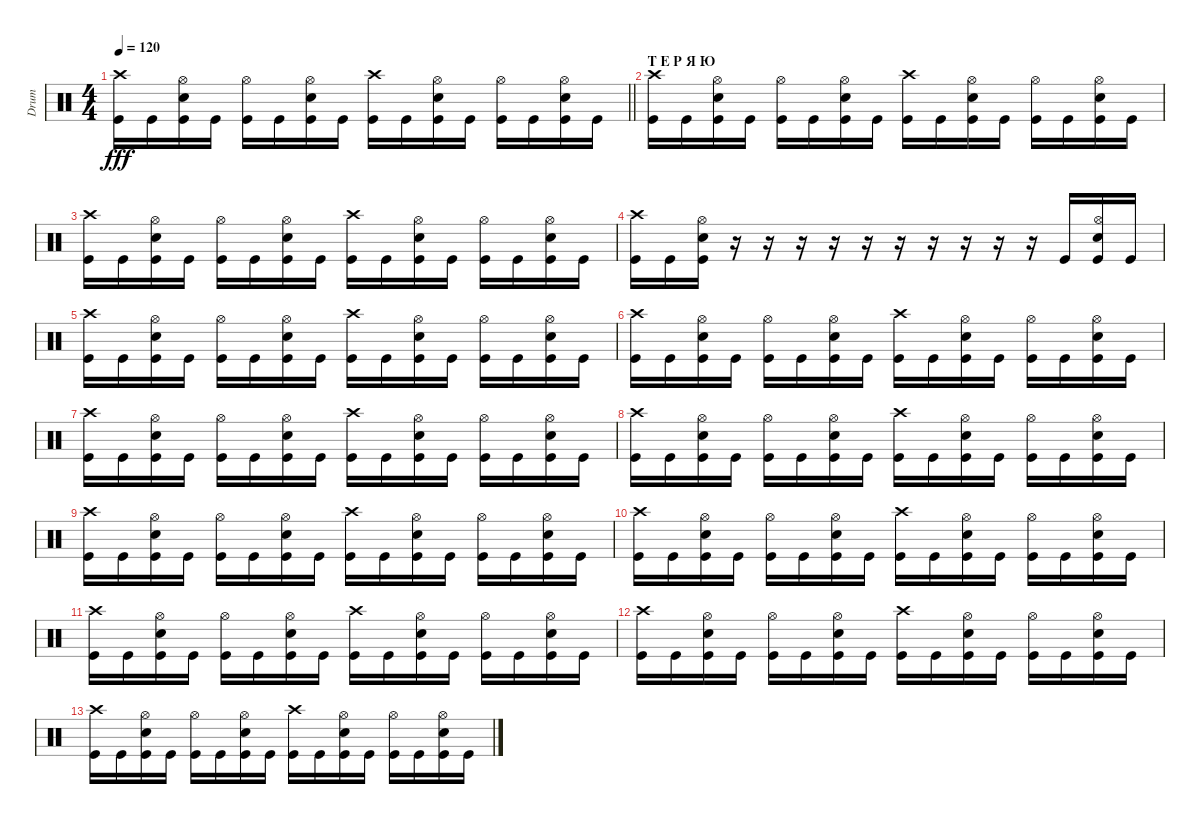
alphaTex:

\track ("Drum" "Drum") {instrument percussion}
\staff {score}
\articulation defaults
\ts (4 4)
\tempo 120
\clef neutral
\barLineRight lightlight
\ks c
("Crash high (hit)" "Kick (hit)").16{dy fff} "Kick (hit)".16 ("Hi-Hat (open)" "Electric Snare (hit)" "Kick (hit)").16 "Kick (hit)".16 ("Hi-Hat (open)" "Kick (hit)").16 "Kick (hit)".16 ("Hi-Hat (open)" "Electric Snare (hit)" "Kick (hit)").16 "Kick (hit)".16 ("Crash high (hit)" "Kick (hit)").16 "Kick (hit)".16 ("Hi-Hat (open)" "Electric Snare (hit)" "Kick (hit)").16 "Kick (hit)".16 ("Hi-Hat (open)" "Kick (hit)").16 "Kick (hit)".16 ("Hi-Hat (open)" "Electric Snare (hit)" "Kick (hit)").16 "Kick (hit)".16 |
\section ("" "Т Е Р Я Ю")
("Crash high (hit)" "Kick (hit)").16 "Kick (hit)".16 ("Hi-Hat (open)" "Electric Snare (hit)" "Kick (hit)").16 "Kick (hit)".16 ("Hi-Hat (open)" "Kick (hit)").16 "Kick (hit)".16 ("Hi-Hat (open)" "Electric Snare (hit)" "Kick (hit)").16 "Kick (hit)".16 ("Crash high (hit)" "Kick (hit)").16 "Kick (hit)".16 ("Hi-Hat (open)" "Electric Snare (hit)" "Kick (hit)").16 "Kick (hit)".16 ("Hi-Hat (open)" "Kick (hit)").16 "Kick (hit)".16 ("Hi-Hat (open)" "Electric Snare (hit)" "Kick (hit)").16 "Kick (hit)".16 |
("Crash high (hit)" "Kick (hit)").16 "Kick (hit)".16 ("Hi-Hat (open)" "Electric Snare (hit)" "Kick (hit)").16 "Kick (hit)".16 ("Hi-Hat (open)" "Kick (hit)").16 "Kick (hit)".16 ("Hi-Hat (open)" "Electric Snare (hit)" "Kick (hit)").16 "Kick (hit)".16 ("Crash high (hit)" "Kick (hit)").16 "Kick (hit)".16 ("Hi-Hat (open)" "Electric Snare (hit)" "Kick (hit)").16 "Kick (hit)".16 ("Hi-Hat (open)" "Kick (hit)").16 "Kick (hit)".16 ("Hi-Hat (open)" "Electric Snare (hit)" "Kick (hit)").16 "Kick (hit)".16 |
("Crash high (hit)" "Kick (hit)").16 "Kick (hit)".16 ("Hi-Hat (open)" "Electric Snare (hit)" "Kick (hit)").16 r.16 r.16 r.16 r.16 r.16 r.16 r.16 r.16 r.16 r.16 "Kick (hit)".16 ("Hi-Hat (open)" "Electric Snare (hit)" "Kick (hit)").16 "Kick (hit)".16 |
("Crash high (hit)" "Kick (hit)").16 "Kick (hit)".16 ("Hi-Hat (open)" "Electric Snare (hit)" "Kick (hit)").16 "Kick (hit)".16 ("Hi-Hat (open)" "Kick (hit)").16 "Kick (hit)".16 ("Hi-Hat (open)" "Electric Snare (hit)" "Kick (hit)").16 "Kick (hit)".16 ("Crash high (hit)" "Kick (hit)").16 "Kick (hit)".16 ("Hi-Hat (open)" "Electric Snare (hit)" "Kick (hit)").16 "Kick (hit)".16 ("Hi-Hat (open)" "Kick (hit)").16 "Kick (hit)".16 ("Hi-Hat (open)" "Electric Snare (hit)" "Kick (hit)").16 "Kick (hit)".16 |
("Crash high (hit)" "Kick (hit)").16 "Kick (hit)".16 ("Hi-Hat (open)" "Electric Snare (hit)" "Kick (hit)").16 "Kick (hit)".16 ("Hi-Hat (open)" "Kick (hit)").16 "Kick (hit)".16 ("Hi-Hat (open)" "Electric Snare (hit)" "Kick (hit)").16 "Kick (hit)".16 ("Crash high (hit)" "Kick (hit)").16 "Kick (hit)".16 ("Hi-Hat (open)" "Electric Snare (hit)" "Kick (hit)").16 "Kick (hit)".16 ("Hi-Hat (open)" "Kick (hit)").16 "Kick (hit)".16 ("Hi-Hat (open)" "Electric Snare (hit)" "Kick (hit)").16 "Kick (hit)".16 |
("Crash high (hit)" "Kick (hit)").16 "Kick (hit)".16 ("Hi-Hat (open)" "Electric Snare (hit)" "Kick (hit)").16 "Kick (hit)".16 ("Hi-Hat (open)" "Kick (hit)").16 "Kick (hit)".16 ("Hi-Hat (open)" "Electric Snare (hit)" "Kick (hit)").16 "Kick (hit)".16 ("Crash high (hit)" "Kick (hit)").16 "Kick (hit)".16 ("Hi-Hat (open)" "Electric Snare (hit)" "Kick (hit)").16 "Kick (hit)".16 ("Hi-Hat (open)" "Kick (hit)").16 "Kick (hit)".16 ("Hi-Hat (open)" "Electric Snare (hit)" "Kick (hit)").16 "Kick (hit)".16 |
("Crash high (hit)" "Kick (hit)").16 "Kick (hit)".16 ("Hi-Hat (open)" "Electric Snare (hit)" "Kick (hit)").16 "Kick (hit)".16 ("Hi-Hat (open)" "Kick (hit)").16 "Kick (hit)".16 ("Hi-Hat (open)" "Electric Snare (hit)" "Kick (hit)").16 "Kick (hit)".16 ("Crash high (hit)" "Kick (hit)").16 "Kick (hit)".16 ("Hi-Hat (open)" "Electric Snare (hit)" "Kick (hit)").16 "Kick (hit)".16 ("Hi-Hat (open)" "Kick (hit)").16 "Kick (hit)".16 ("Hi-Hat (open)" "Electric Snare (hit)" "Kick (hit)").16 "Kick (hit)".16 |
("Crash high (hit)" "Kick (hit)").16 "Kick (hit)".16 ("Hi-Hat (open)" "Electric Snare (hit)" "Kick (hit)").16 "Kick (hit)".16 ("Hi-Hat (open)" "Kick (hit)").16 "Kick (hit)".16 ("Hi-Hat (open)" "Electric Snare (hit)" "Kick (hit)").16 "Kick (hit)".16 ("Crash high (hit)" "Kick (hit)").16 "Kick (hit)".16 ("Hi-Hat (open)" "Electric Snare (hit)" "Kick (hit)").16 "Kick (hit)".16 ("Hi-Hat (open)" "Kick (hit)").16 "Kick (hit)".16 ("Hi-Hat (open)" "Electric Snare (hit)" "Kick (hit)").16 "Kick (hit)".16 |
("Crash high (hit)" "Kick (hit)").16 "Kick (hit)".16 ("Hi-Hat (open)" "Electric Snare (hit)" "Kick (hit)").16 "Kick (hit)".16 ("Hi-Hat (open)" "Kick (hit)").16 "Kick (hit)".16 ("Hi-Hat (open)" "Electric Snare (hit)" "Kick (hit)").16 "Kick (hit)".16 ("Crash high (hit)" "Kick (hit)").16 "Kick (hit)".16 ("Hi-Hat (open)" "Electric Snare (hit)" "Kick (hit)").16 "Kick (hit)".16 ("Hi-Hat (open)" "Kick (hit)").16 "Kick (hit)".16 ("Hi-Hat (open)" "Electric Snare (hit)" "Kick (hit)").16 "Kick (hit)".16 |
("Crash high (hit)" "Kick (hit)").16 "Kick (hit)".16 ("Hi-Hat (open)" "Electric Snare (hit)" "Kick (hit)").16 "Kick (hit)".16 ("Hi-Hat (open)" "Kick (hit)").16 "Kick (hit)".16 ("Hi-Hat (open)" "Electric Snare (hit)" "Kick (hit)").16 "Kick (hit)".16 ("Crash high (hit)" "Kick (hit)").16 "Kick (hit)".16 ("Hi-Hat (open)" "Electric Snare (hit)" "Kick (hit)").16 "Kick (hit)".16 ("Hi-Hat (open)" "Kick (hit)").16 "Kick (hit)".16 ("Hi-Hat (open)" "Electric Snare (hit)" "Kick (hit)").16 "Kick (hit)".16 |
("Crash high (hit)" "Kick (hit)").16 "Kick (hit)".16 ("Hi-Hat (open)" "Electric Snare (hit)" "Kick (hit)").16 "Kick (hit)".16 ("Hi-Hat (open)" "Kick (hit)").16 "Kick (hit)".16 ("Hi-Hat (open)" "Electric Snare (hit)" "Kick (hit)").16 "Kick (hit)".16 ("Crash high (hit)" "Kick (hit)").16 "Kick (hit)".16 ("Hi-Hat (open)" "Electric Snare (hit)" "Kick (hit)").16 "Kick (hit)".16 ("Hi-Hat (open)" "Kick (hit)").16 "Kick (hit)".16 ("Hi-Hat (open)" "Electric Snare (hit)" "Kick (hit)").16 "Kick (hit)".16 |
("Crash high (hit)" "Kick (hit)").16 "Kick (hit)".16 ("Hi-Hat (open)" "Electric Snare (hit)" "Kick (hit)").16 "Kick (hit)".16 ("Hi-Hat (open)" "Kick (hit)").16 "Kick (hit)".16 ("Hi-Hat (open)" "Electric Snare (hit)" "Kick (hit)").16 "Kick (hit)".16 ("Crash high (hit)" "Kick (hit)").16 "Kick (hit)".16 ("Hi-Hat (open)" "Electric Snare (hit)" "Kick (hit)").16 "Kick (hit)".16 ("Hi-Hat (open)" "Kick (hit)").16 "Kick (hit)".16 ("Hi-Hat (open)" "Electric Snare (hit)" "Kick (hit)").16 "Kick (hit)".16
